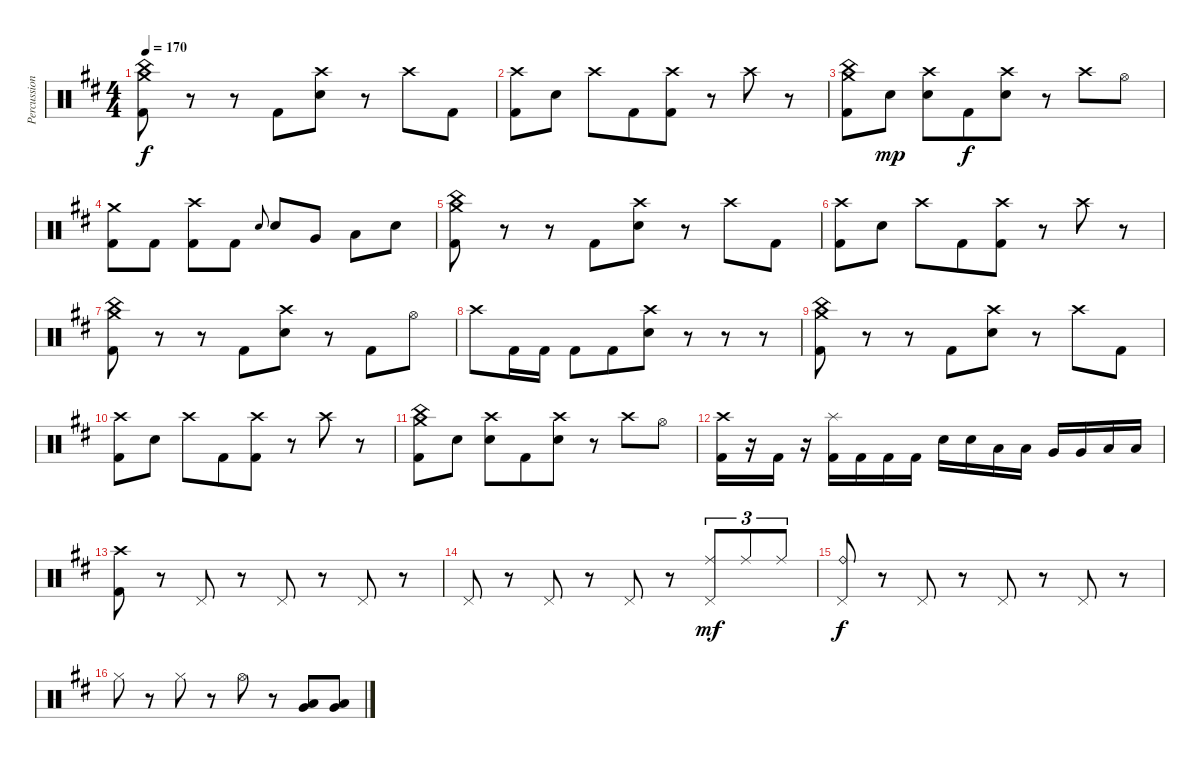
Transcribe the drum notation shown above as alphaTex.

\track ("Percussion" "Percussion") {instrument percussion}
\staff {score}
\articulation defaults
\ts (4 4)
\tempo 170
\clef neutral
\ks bminor
("China (hit)" "Crash medium (hit)" "Kick (hit) 2").8{dy f} r.8 r.8 "Kick (hit) 2".8{beam merge} ("Crash high (hit)" "Electric Snare (hit)").8 r.8{beam merge} "Crash high (hit)".8{beam merge} "Kick (hit) 2".8 |
("Crash high (hit)" "Kick (hit) 2").8 "Electric Snare (hit)".8 "Crash high (hit)".8 "Kick (hit) 2".8{beam merge} ("Crash high (hit)" "Kick (hit) 2").8 r.8{beam merge} "Crash high (hit)".8{beam merge} r.8 |
("China (hit)" "Crash medium (hit)" "Kick (hit) 2").8{beam merge} "Electric Snare (hit)".8{dy mp} ("Crash high (hit)" "Electric Snare (hit)").8 "Kick (hit) 2".8{dy f beam merge} ("Crash high (hit)" "Electric Snare (hit)").8 r.8{beam merge} "Crash high (hit)".8{beam merge} "Hi-Hat (open)".8 |
("Crash medium (hit)" "Kick (hit) 2").8 "Kick (hit) 2".8 ("Crash high (hit)" "Kick (hit) 2").8 "Kick (hit) 2".8 "Electric Snare (hit)".8{gr onbeat beam merge} "Electric Snare (hit)".8 "Very Low Tom (hit)".8 "Low Floor Tom (hit)".8{beam merge} "Electric Snare (hit)".8 |
("China (hit)" "Crash medium (hit)" "Kick (hit) 2").8 r.8 r.8 "Kick (hit) 2".8{beam merge} ("Crash high (hit)" "Electric Snare (hit)").8 r.8{beam merge} "Crash high (hit)".8{beam merge} "Kick (hit) 2".8 |
("Crash high (hit)" "Kick (hit) 2").8 "Electric Snare (hit)".8 "Crash high (hit)".8 "Kick (hit) 2".8{beam merge} ("Crash high (hit)" "Kick (hit) 2").8 r.8{beam merge} "Crash high (hit)".8{beam merge} r.8 |
("China (hit)" "Crash medium (hit)" "Kick (hit) 2").8 r.8 r.8 "Kick (hit) 2".8{beam merge} ("Crash high (hit)" "Electric Snare (hit)").8 r.8{beam merge} "Kick (hit) 2".8{beam merge} "Hi-Hat (open)".8 |
"Crash high (hit)".8 "Kick (hit) 2".16 "Kick (hit) 2".16 "Kick (hit) 2".8 "Kick (hit) 2".8{beam merge} ("Crash high (hit)" "Electric Snare (hit)").8 r.8{beam merge} r.8{beam merge} r.8 |
("China (hit)" "Crash medium (hit)" "Kick (hit) 2").8 r.8 r.8 "Kick (hit) 2".8{beam merge} ("Crash high (hit)" "Electric Snare (hit)").8 r.8{beam merge} "Crash high (hit)".8{beam merge} "Kick (hit) 2".8 |
("Crash high (hit)" "Kick (hit) 2").8 "Electric Snare (hit)".8 "Crash high (hit)".8 "Kick (hit) 2".8{beam merge} ("Crash high (hit)" "Kick (hit) 2").8 r.8{beam merge} "Crash high (hit)".8{beam merge} r.8 |
("China (hit)" "Crash medium (hit)" "Kick (hit) 2").8{beam merge} "Electric Snare (hit)".8 ("Crash high (hit)" "Electric Snare (hit)").8 "Kick (hit) 2".8{beam merge} ("Crash high (hit)" "Electric Snare (hit)").8 r.8{beam merge} "Crash high (hit)".8{beam merge} "Hi-Hat (open)".8 |
("Crash high (hit)" "Kick (hit) 2").16{beam merge} r.16{beam merge} "Kick (hit) 2".16 r.16{beam merge} ("Splash (hit)" "Kick (hit) 2").16{beam merge} "Kick (hit) 2".16 "Kick (hit) 2".16 "Kick (hit) 2".16 "Electric Snare (hit)".16{beam merge} "Electric Snare (hit)".16{beam merge} "Low Tom (hit)".16 "Low Tom (hit)".16 "Very Low Tom (hit)".16 "Very Low Tom (hit)".16{beam merge} "Low Floor Tom (hit)".16{beam merge} "Low Floor Tom (hit)".16 |
("Crash high (hit)" "Kick (hit) 2").8 r.8 "Pedal Hi-Hat (hit)".8 r.8 "Pedal Hi-Hat (hit)".8 r.8 "Pedal Hi-Hat (hit)".8{beam merge} r.8 |
"Pedal Hi-Hat (hit)".8 r.8 "Pedal Hi-Hat (hit)".8 r.8 "Pedal Hi-Hat (hit)".8 r.8 ("Pedal Hi-Hat (hit)" "Ride (middle)").8{tu (3 2) dy mf} "Ride (middle)".8{tu (3 2) beam merge} "Ride (middle)".8{tu (3 2)} |
("Pedal Hi-Hat (hit)" "Ride (bell)").8{dy f} r.8 "Pedal Hi-Hat (hit)".8 r.8 "Pedal Hi-Hat (hit)".8 r.8 "Pedal Hi-Hat (hit)".8{beam merge} r.8 |
"Hi-Hat (closed)".8 r.8 "Hi-Hat (closed)".8 r.8 "Hi-Hat (open)".8 r.8 ("Low Floor Tom (hit)" "Very Low Tom (hit)").8 ("Low Floor Tom (hit)" "Very Low Tom (hit)").8
